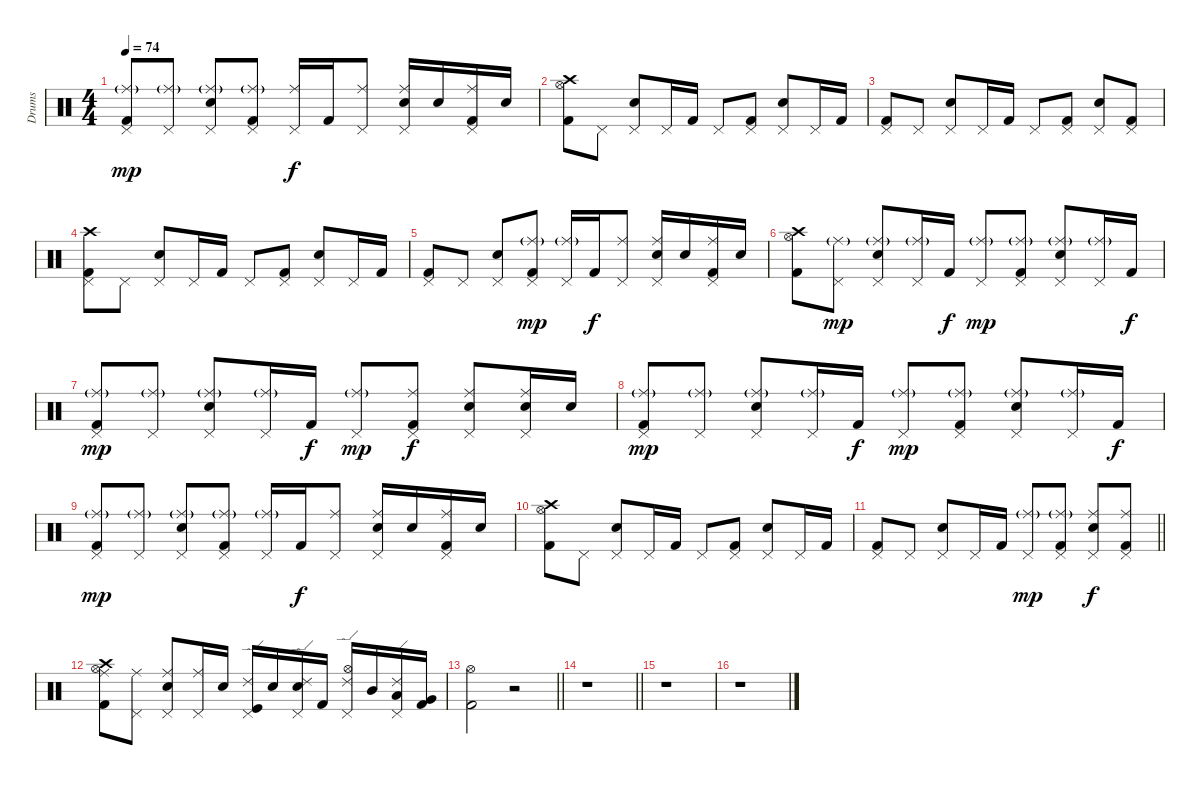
\track ("Drums" "Drums") {instrument percussion}
\staff {score}
\articulation defaults
\ts (4 4)
\tempo 74
\clef neutral
\ks c
("Pedal Hi-Hat (hit)" "Ride (middle)"{g} "Kick (hit) 2").8{dy mp} ("Pedal Hi-Hat (hit)" "Ride (middle)"{g}).8 ("Pedal Hi-Hat (hit)" "Ride (middle)"{g} "Electric Snare (hit)").8 ("Pedal Hi-Hat (hit)" "Ride (middle)"{g} "Kick (hit) 2").8 ("Pedal Hi-Hat (hit)" "Ride (middle)").16{dy f} "Kick (hit) 2".16 ("Pedal Hi-Hat (hit)" "Ride (middle)").8 ("Pedal Hi-Hat (hit)" "Ride (middle)" "Electric Snare (hit)").16 "Electric Snare (hit)".16 ("Pedal Hi-Hat (hit)" "Ride (middle)" "Kick (hit) 2").16 "Electric Snare (hit)".16 |
("Crash high (hit)" "Hi-Hat (open)" "Kick (hit) 2").8 "Pedal Hi-Hat (hit)".8 ("Pedal Hi-Hat (hit)" "Electric Snare (hit)").8 "Pedal Hi-Hat (hit)".16 "Kick (hit) 2".16 "Pedal Hi-Hat (hit)".8 ("Pedal Hi-Hat (hit)" "Kick (hit) 2").8 ("Pedal Hi-Hat (hit)" "Electric Snare (hit)").8 "Pedal Hi-Hat (hit)".16 "Kick (hit) 2".16 |
("Pedal Hi-Hat (hit)" "Kick (hit) 2").8 "Pedal Hi-Hat (hit)".8 ("Pedal Hi-Hat (hit)" "Electric Snare (hit)").8 "Pedal Hi-Hat (hit)".16 "Kick (hit) 2".16 "Pedal Hi-Hat (hit)".8 ("Pedal Hi-Hat (hit)" "Kick (hit) 2").8 ("Pedal Hi-Hat (hit)" "Electric Snare (hit)").8 ("Pedal Hi-Hat (hit)" "Kick (hit) 2").8 |
("Pedal Hi-Hat (hit)" "Crash high (hit)" "Kick (hit) 2").8 "Pedal Hi-Hat (hit)".8 ("Pedal Hi-Hat (hit)" "Electric Snare (hit)").8 "Pedal Hi-Hat (hit)".16 "Kick (hit) 2".16 "Pedal Hi-Hat (hit)".8 ("Pedal Hi-Hat (hit)" "Kick (hit) 2").8 ("Pedal Hi-Hat (hit)" "Electric Snare (hit)").8 "Pedal Hi-Hat (hit)".16 "Kick (hit) 2".16 |
("Pedal Hi-Hat (hit)" "Kick (hit) 2").8 "Pedal Hi-Hat (hit)".8 ("Pedal Hi-Hat (hit)" "Electric Snare (hit)").8 ("Pedal Hi-Hat (hit)" "Ride (middle)"{g} "Kick (hit) 2").8{dy mp} ("Pedal Hi-Hat (hit)" "Ride (middle)"{g}).16 "Kick (hit) 2".16{dy f} ("Pedal Hi-Hat (hit)" "Ride (middle)").8 ("Pedal Hi-Hat (hit)" "Ride (middle)" "Electric Snare (hit)").16 "Electric Snare (hit)".16 ("Pedal Hi-Hat (hit)" "Ride (middle)" "Kick (hit) 2").16 "Electric Snare (hit)".16 |
("Crash high (hit)" "Hi-Hat (open)" "Kick (hit) 2").8 ("Pedal Hi-Hat (hit)" "Ride (middle)"{g}).8{dy mp} ("Pedal Hi-Hat (hit)" "Ride (middle)"{g} "Electric Snare (hit)").8 ("Pedal Hi-Hat (hit)" "Ride (middle)"{g}).16 "Kick (hit) 2".16{dy f} ("Pedal Hi-Hat (hit)" "Ride (middle)"{g}).8{dy mp} ("Pedal Hi-Hat (hit)" "Ride (middle)"{g} "Kick (hit) 2").8 ("Pedal Hi-Hat (hit)" "Ride (middle)"{g} "Electric Snare (hit)").8 ("Pedal Hi-Hat (hit)" "Ride (middle)"{g}).16 "Kick (hit) 2".16{dy f} |
("Pedal Hi-Hat (hit)" "Ride (middle)"{g} "Kick (hit) 2").8{dy mp} ("Pedal Hi-Hat (hit)" "Ride (middle)"{g}).8 ("Pedal Hi-Hat (hit)" "Ride (middle)"{g} "Electric Snare (hit)").8 ("Pedal Hi-Hat (hit)" "Ride (middle)"{g}).16 "Kick (hit) 2".16{dy f} ("Pedal Hi-Hat (hit)" "Ride (middle)"{g}).8{dy mp} ("Pedal Hi-Hat (hit)" "Ride (middle)" "Kick (hit) 2").8{dy f} ("Pedal Hi-Hat (hit)" "Ride (middle)" "Electric Snare (hit)").8 ("Pedal Hi-Hat (hit)" "Ride (middle)" "Electric Snare (hit)").16 "Electric Snare (hit)".16 |
("Pedal Hi-Hat (hit)" "Ride (middle)"{g} "Kick (hit) 2").8{dy mp} ("Pedal Hi-Hat (hit)" "Ride (middle)"{g}).8 ("Pedal Hi-Hat (hit)" "Ride (middle)"{g} "Electric Snare (hit)").8 ("Pedal Hi-Hat (hit)" "Ride (middle)"{g}).16 "Kick (hit) 2".16{dy f} ("Pedal Hi-Hat (hit)" "Ride (middle)"{g}).8{dy mp} ("Pedal Hi-Hat (hit)" "Ride (middle)"{g} "Kick (hit) 2").8 ("Pedal Hi-Hat (hit)" "Ride (middle)"{g} "Electric Snare (hit)").8 ("Pedal Hi-Hat (hit)" "Ride (middle)"{g}).16 "Kick (hit) 2".16{dy f} |
("Pedal Hi-Hat (hit)" "Ride (middle)"{g} "Kick (hit) 2").8{dy mp} ("Pedal Hi-Hat (hit)" "Ride (middle)"{g}).8 ("Pedal Hi-Hat (hit)" "Ride (middle)"{g} "Electric Snare (hit)").8 ("Pedal Hi-Hat (hit)" "Ride (middle)"{g} "Kick (hit) 2").8 ("Pedal Hi-Hat (hit)" "Ride (middle)"{g}).16 "Kick (hit) 2".16{dy f} ("Pedal Hi-Hat (hit)" "Ride (middle)").8 ("Pedal Hi-Hat (hit)" "Ride (middle)" "Electric Snare (hit)").16 "Electric Snare (hit)".16 ("Pedal Hi-Hat (hit)" "Ride (middle)" "Kick (hit) 2").16 "Electric Snare (hit)".16 |
("Crash high (hit)" "Hi-Hat (open)" "Kick (hit) 2").8 "Pedal Hi-Hat (hit)".8 ("Pedal Hi-Hat (hit)" "Electric Snare (hit)").8 "Pedal Hi-Hat (hit)".16 "Kick (hit) 2".16 "Pedal Hi-Hat (hit)".8 ("Pedal Hi-Hat (hit)" "Kick (hit) 2").8 ("Pedal Hi-Hat (hit)" "Electric Snare (hit)").8 "Pedal Hi-Hat (hit)".16 "Kick (hit) 2".16 |
\barLineRight lightlight
("Pedal Hi-Hat (hit)" "Kick (hit) 2").8 "Pedal Hi-Hat (hit)".8 ("Pedal Hi-Hat (hit)" "Electric Snare (hit)").8 "Pedal Hi-Hat (hit)".16 "Kick (hit) 2".16 ("Pedal Hi-Hat (hit)" "Ride (middle)"{g}).8{dy mp} ("Pedal Hi-Hat (hit)" "Ride (middle)"{g} "Kick (hit) 2").8 ("Pedal Hi-Hat (hit)" "Ride (middle)" "Electric Snare (hit)").8{dy f} ("Pedal Hi-Hat (hit)" "Ride (middle)" "Kick (hit) 2").8 |
("Crash high (hit)" "Hi-Hat (open)" "Ride (middle)" "Kick (hit) 2").8 ("Pedal Hi-Hat (hit)" "Ride (middle)").8 ("Pedal Hi-Hat (hit)" "Ride (middle)" "Electric Snare (hit)").8 ("Pedal Hi-Hat (hit)" "Ride (middle)").16 "Electric Snare (hit)".16 ("Pedal Hi-Hat (hit)" "Ride (edge) 2" "Kick (hit)").16 "Electric Snare (hit)".16 ("Pedal Hi-Hat (hit)" "Ride (edge) 2" "Electric Snare (hit)").16 "Kick (hit) 2".16 ("Pedal Hi-Hat (hit)" "Ride (edge) 2" "Hi-Hat (open)").16 "Mid Tom (hit)".16 ("Pedal Hi-Hat (hit)" "Ride (edge) 2" "Low Tom (hit)").16 ("Very Low Tom (hit)" "Kick (hit) 2").16 |
\barLineRight lightlight
("Hi-Hat (open)" "Kick (hit) 2").2 r.2 |
\barLineRight lightlight
r.1 |
r.1 |
r.1
